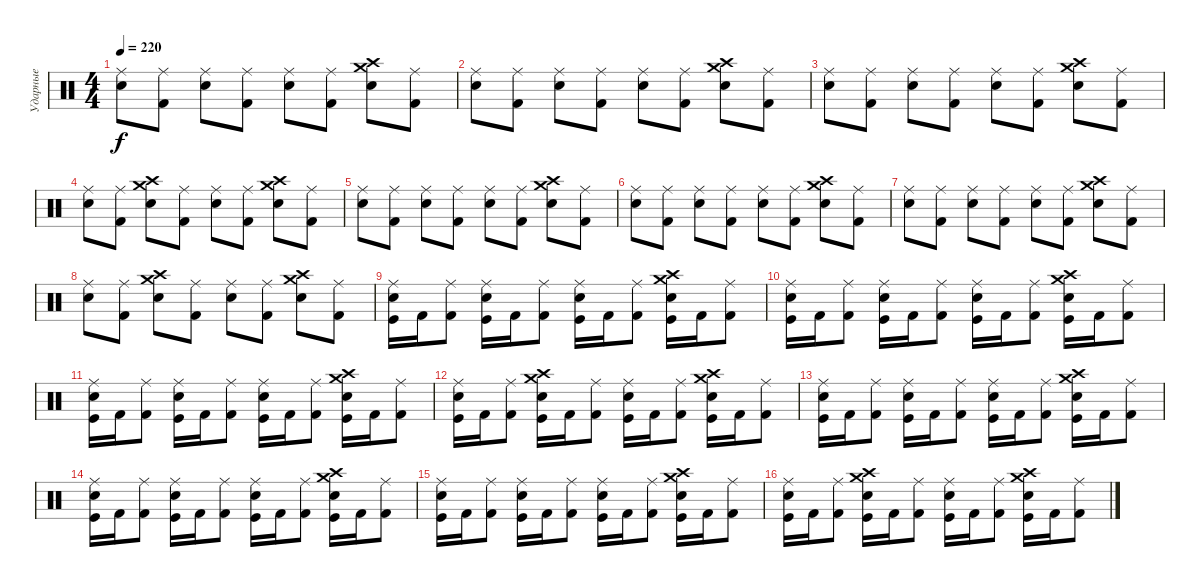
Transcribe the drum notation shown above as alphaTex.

\track ("Ударные" "Ударные") {instrument percussion}
\staff {score}
\articulation defaults
\ts (4 4)
\tempo 220
\clef neutral
\ks c
("Ride (middle)" "Snare (hit) 2").8{dy f} ("Ride (middle)" "Kick (hit) 2").8 ("Ride (middle)" "Snare (hit) 2").8 ("Ride (middle)" "Kick (hit) 2").8 ("Ride (middle)" "Snare (hit) 2").8 ("Ride (middle)" "Kick (hit) 2").8 ("Crash high (hit)" "Crash medium (hit)" "Snare (hit) 2").8 ("Ride (middle)" "Kick (hit) 2").8 |
("Ride (middle)" "Snare (hit) 2").8 ("Ride (middle)" "Kick (hit) 2").8 ("Ride (middle)" "Snare (hit) 2").8 ("Ride (middle)" "Kick (hit) 2").8 ("Ride (middle)" "Snare (hit) 2").8 ("Ride (middle)" "Kick (hit) 2").8 ("Crash high (hit)" "Crash medium (hit)" "Snare (hit) 2").8 ("Ride (middle)" "Kick (hit) 2").8 |
("Ride (middle)" "Snare (hit) 2").8 ("Ride (middle)" "Kick (hit) 2").8 ("Ride (middle)" "Snare (hit) 2").8 ("Ride (middle)" "Kick (hit) 2").8 ("Ride (middle)" "Snare (hit) 2").8 ("Ride (middle)" "Kick (hit) 2").8 ("Crash high (hit)" "Crash medium (hit)" "Snare (hit) 2").8 ("Ride (middle)" "Kick (hit) 2").8 |
("Ride (middle)" "Snare (hit) 2").8 ("Ride (middle)" "Kick (hit) 2").8 ("Crash high (hit)" "Snare (hit) 2" "Crash medium (hit)").8 ("Ride (middle)" "Kick (hit) 2").8 ("Ride (middle)" "Snare (hit) 2").8 ("Ride (middle)" "Kick (hit) 2").8 ("Crash high (hit)" "Crash medium (hit)" "Snare (hit) 2").8 ("Ride (middle)" "Kick (hit) 2").8 |
("Ride (middle)" "Snare (hit) 2").8 ("Ride (middle)" "Kick (hit) 2").8 ("Ride (middle)" "Snare (hit) 2").8 ("Ride (middle)" "Kick (hit) 2").8 ("Ride (middle)" "Snare (hit) 2").8 ("Ride (middle)" "Kick (hit) 2").8 ("Crash high (hit)" "Crash medium (hit)" "Snare (hit) 2").8 ("Ride (middle)" "Kick (hit) 2").8 |
("Ride (middle)" "Snare (hit) 2").8 ("Ride (middle)" "Kick (hit) 2").8 ("Ride (middle)" "Snare (hit) 2").8 ("Ride (middle)" "Kick (hit) 2").8 ("Ride (middle)" "Snare (hit) 2").8 ("Ride (middle)" "Kick (hit) 2").8 ("Crash high (hit)" "Crash medium (hit)" "Snare (hit) 2").8 ("Ride (middle)" "Kick (hit) 2").8 |
("Ride (middle)" "Snare (hit) 2").8 ("Ride (middle)" "Kick (hit) 2").8 ("Ride (middle)" "Snare (hit) 2").8 ("Ride (middle)" "Kick (hit) 2").8 ("Ride (middle)" "Snare (hit) 2").8 ("Ride (middle)" "Kick (hit) 2").8 ("Crash high (hit)" "Crash medium (hit)" "Snare (hit) 2").8 ("Ride (middle)" "Kick (hit) 2").8 |
("Ride (middle)" "Snare (hit) 2").8 ("Ride (middle)" "Kick (hit) 2").8 ("Crash high (hit)" "Snare (hit) 2" "Crash medium (hit)").8 ("Ride (middle)" "Kick (hit) 2").8 ("Ride (middle)" "Snare (hit) 2").8 ("Ride (middle)" "Kick (hit) 2").8 ("Crash high (hit)" "Crash medium (hit)" "Snare (hit) 2").8 ("Ride (middle)" "Kick (hit) 2").8 |
("Ride (middle)" "Snare (hit) 2" "Kick (hit)").16 "Kick (hit) 2".16 ("Ride (middle)" "Kick (hit) 2").8 ("Ride (middle)" "Snare (hit) 2" "Kick (hit)").16 "Kick (hit) 2".16 ("Ride (middle)" "Kick (hit) 2").8 ("Ride (middle)" "Snare (hit) 2" "Kick (hit)").16 "Kick (hit) 2".16 ("Ride (middle)" "Kick (hit) 2").8 ("Crash high (hit)" "Crash medium (hit)" "Snare (hit) 2" "Kick (hit)").16 "Kick (hit) 2".16 ("Ride (middle)" "Kick (hit) 2").8 |
("Ride (middle)" "Snare (hit) 2" "Kick (hit)").16 "Kick (hit) 2".16 ("Ride (middle)" "Kick (hit) 2").8 ("Ride (middle)" "Snare (hit) 2" "Kick (hit)").16 "Kick (hit) 2".16 ("Ride (middle)" "Kick (hit) 2").8 ("Ride (middle)" "Snare (hit) 2" "Kick (hit)").16 "Kick (hit) 2".16 ("Ride (middle)" "Kick (hit) 2").8 ("Crash high (hit)" "Crash medium (hit)" "Snare (hit) 2" "Kick (hit)").16 "Kick (hit) 2".16 ("Ride (middle)" "Kick (hit) 2").8 |
("Ride (middle)" "Snare (hit) 2" "Kick (hit)").16 "Kick (hit) 2".16 ("Ride (middle)" "Kick (hit) 2").8 ("Ride (middle)" "Snare (hit) 2" "Kick (hit)").16 "Kick (hit) 2".16 ("Ride (middle)" "Kick (hit) 2").8 ("Ride (middle)" "Snare (hit) 2" "Kick (hit)").16 "Kick (hit) 2".16 ("Ride (middle)" "Kick (hit) 2").8 ("Crash high (hit)" "Crash medium (hit)" "Snare (hit) 2" "Kick (hit)").16 "Kick (hit) 2".16 ("Ride (middle)" "Kick (hit) 2").8 |
("Ride (middle)" "Snare (hit) 2" "Kick (hit)").16 "Kick (hit) 2".16 ("Ride (middle)" "Kick (hit) 2").8 ("Crash high (hit)" "Snare (hit) 2" "Crash medium (hit)" "Kick (hit)").16 "Kick (hit) 2".16 ("Ride (middle)" "Kick (hit) 2").8 ("Ride (middle)" "Snare (hit) 2" "Kick (hit)").16 "Kick (hit) 2".16 ("Ride (middle)" "Kick (hit) 2").8 ("Crash high (hit)" "Crash medium (hit)" "Snare (hit) 2" "Kick (hit)").16 "Kick (hit) 2".16 ("Ride (middle)" "Kick (hit) 2").8 |
("Ride (middle)" "Snare (hit) 2" "Kick (hit)").16 "Kick (hit) 2".16 ("Ride (middle)" "Kick (hit) 2").8 ("Ride (middle)" "Snare (hit) 2" "Kick (hit)").16 "Kick (hit) 2".16 ("Ride (middle)" "Kick (hit) 2").8 ("Ride (middle)" "Snare (hit) 2" "Kick (hit)").16 "Kick (hit) 2".16 ("Ride (middle)" "Kick (hit) 2").8 ("Crash high (hit)" "Crash medium (hit)" "Snare (hit) 2" "Kick (hit)").16 "Kick (hit) 2".16 ("Ride (middle)" "Kick (hit) 2").8 |
("Ride (middle)" "Snare (hit) 2" "Kick (hit)").16 "Kick (hit) 2".16 ("Ride (middle)" "Kick (hit) 2").8 ("Ride (middle)" "Snare (hit) 2" "Kick (hit)").16 "Kick (hit) 2".16 ("Ride (middle)" "Kick (hit) 2").8 ("Ride (middle)" "Snare (hit) 2" "Kick (hit)").16 "Kick (hit) 2".16 ("Ride (middle)" "Kick (hit) 2").8 ("Crash high (hit)" "Crash medium (hit)" "Snare (hit) 2" "Kick (hit)").16 "Kick (hit) 2".16 ("Ride (middle)" "Kick (hit) 2").8 |
("Ride (middle)" "Snare (hit) 2" "Kick (hit)").16 "Kick (hit) 2".16 ("Ride (middle)" "Kick (hit) 2").8 ("Ride (middle)" "Snare (hit) 2" "Kick (hit)").16 "Kick (hit) 2".16 ("Ride (middle)" "Kick (hit) 2").8 ("Ride (middle)" "Snare (hit) 2" "Kick (hit)").16 "Kick (hit) 2".16 ("Ride (middle)" "Kick (hit) 2").8 ("Crash high (hit)" "Crash medium (hit)" "Snare (hit) 2" "Kick (hit)").16 "Kick (hit) 2".16 ("Ride (middle)" "Kick (hit) 2").8 |
("Ride (middle)" "Snare (hit) 2" "Kick (hit)").16 "Kick (hit) 2".16 ("Ride (middle)" "Kick (hit) 2").8 ("Crash high (hit)" "Snare (hit) 2" "Crash medium (hit)" "Kick (hit)").16 "Kick (hit) 2".16 ("Ride (middle)" "Kick (hit) 2").8 ("Ride (middle)" "Snare (hit) 2" "Kick (hit)").16 "Kick (hit) 2".16 ("Ride (middle)" "Kick (hit) 2").8 ("Crash high (hit)" "Crash medium (hit)" "Snare (hit) 2" "Kick (hit)").16 "Kick (hit) 2".16 ("Ride (middle)" "Kick (hit) 2").8
